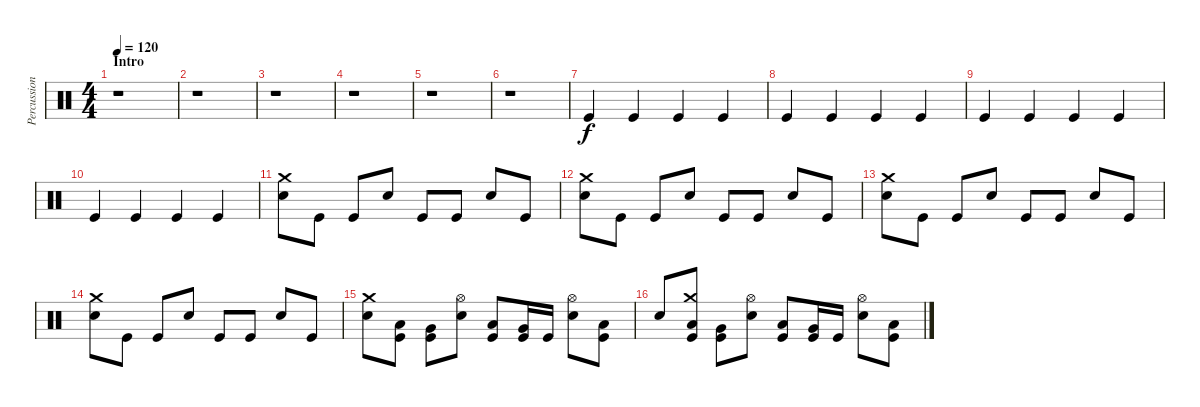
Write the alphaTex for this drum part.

\track ("Percussions" "Percussion") {instrument percussion}
\staff {score}
\articulation defaults
\ts (4 4)
\section ("" "Intro")
\tempo 120
\clef neutral
\ks c
r.1{dy f} |
r.1 |
r.1 |
r.1 |
r.1 |
r.1 |
"Kick (hit)".4 "Kick (hit)".4 "Kick (hit)".4 "Kick (hit)".4 |
"Kick (hit)".4 "Kick (hit)".4 "Kick (hit)".4 "Kick (hit)".4 |
"Kick (hit)".4 "Kick (hit)".4 "Kick (hit)".4 "Kick (hit)".4 |
"Kick (hit)".4 "Kick (hit)".4 "Kick (hit)".4 "Kick (hit)".4 |
("Crash medium (hit)" "Electric Snare (hit)").8 "Kick (hit)".8 "Kick (hit)".8 "Electric Snare (hit)".8 "Kick (hit)".8 "Kick (hit)".8 "Electric Snare (hit)".8 "Kick (hit)".8 |
("Crash medium (hit)" "Electric Snare (hit)").8 "Kick (hit)".8 "Kick (hit)".8 "Electric Snare (hit)".8 "Kick (hit)".8 "Kick (hit)".8 "Electric Snare (hit)".8 "Kick (hit)".8 |
("Crash medium (hit)" "Electric Snare (hit)").8 "Kick (hit)".8 "Kick (hit)".8 "Electric Snare (hit)".8 "Kick (hit)".8 "Kick (hit)".8 "Electric Snare (hit)".8 "Kick (hit)".8 |
("Crash medium (hit)" "Electric Snare (hit)").8 "Kick (hit)".8 "Kick (hit)".8 "Electric Snare (hit)".8 "Kick (hit)".8 "Kick (hit)".8 "Electric Snare (hit)".8 "Kick (hit)".8 |
("Crash medium (hit)" "Electric Snare (hit)").8 ("Low Tom (hit)" "Kick (hit)").8 ("Very Low Tom (hit)" "Kick (hit)").8 ("Hi-Hat (open)" "Electric Snare (hit)").8 ("Low Tom (hit)" "Kick (hit)").8 ("Very Low Tom (hit)" "Kick (hit)").16 "Kick (hit)".16 ("Hi-Hat (open)" "Electric Snare (hit)").8 ("Low Tom (hit)" "Kick (hit)").8 |
"Electric Snare (hit)".8 ("Crash medium (hit)" "Low Tom (hit)" "Kick (hit)").8 ("Very Low Tom (hit)" "Kick (hit)").8 ("Hi-Hat (open)" "Electric Snare (hit)").8 ("Low Tom (hit)" "Kick (hit)").8 ("Very Low Tom (hit)" "Kick (hit)").16 "Kick (hit)".16 ("Hi-Hat (open)" "Electric Snare (hit)").8 ("Low Tom (hit)" "Kick (hit)").8
